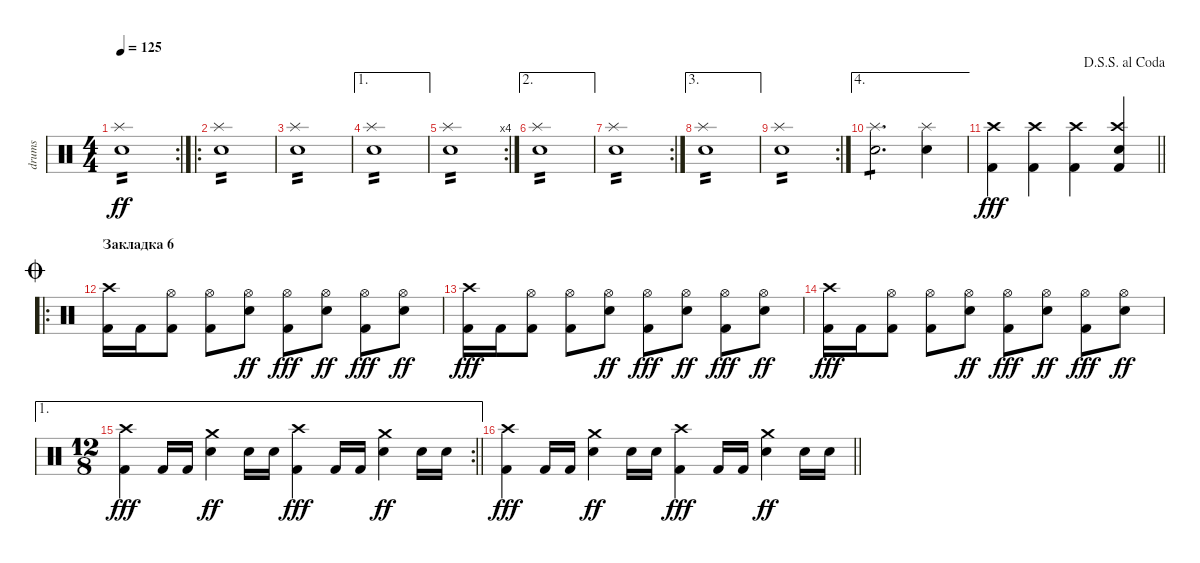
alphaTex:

\track ("drums" "drums") {instrument percussion}
\staff {score}
\articulation defaults
\rc 2
\ts (4 4)
\tempo 125
\clef neutral
\ks c
("Splash (hit)" "Electric Snare (hit)").1{tp 2 dy ff} |
\ro
("Splash (hit)" "Electric Snare (hit)").1{tp 2} |
("Splash (hit)" "Electric Snare (hit)").1{tp 2} |
\ae 1
("Splash (hit)" "Electric Snare (hit)").1{tp 2} |
\rc 4
("Splash (hit)" "Electric Snare (hit)").1{tp 2} |
\ae 2
("Splash (hit)" "Electric Snare (hit)").1{tp 2} |
\rc 2
("Splash (hit)" "Electric Snare (hit)").1{tp 2} |
\ae 3
("Splash (hit)" "Electric Snare (hit)").1{tp 2} |
\rc 2
("Splash (hit)" "Electric Snare (hit)").1{tp 2} |
\ae 4
("Splash (hit)" "Electric Snare (hit)").2{d tp 1} ("Splash (hit)" "Electric Snare (hit)").4 |
\jump dalsegnosegnoalcoda
\barLineRight lightlight
("Crash high (hit)" "Kick (hit) 2").4{dy fff} ("Crash high (hit)" "Kick (hit) 2").4 ("Crash high (hit)" "Kick (hit) 2").4 ("Crash high (hit)" "Electric Snare (hit)" "Kick (hit) 2").4 |
\ro
\section ("" "Закладка 6")
\jump coda
("Crash high (hit)" "Kick (hit) 2").16 "Kick (hit) 2".16 ("Hi-Hat (open)" "Kick (hit) 2").8 ("Hi-Hat (open)" "Kick (hit) 2").8 ("Hi-Hat (open)" "Electric Snare (hit)").8{dy ff} ("Hi-Hat (open)" "Kick (hit) 2").8{dy fff} ("Hi-Hat (open)" "Electric Snare (hit)").8{dy ff} ("Hi-Hat (open)" "Kick (hit) 2").8{dy fff} ("Hi-Hat (open)" "Electric Snare (hit)").8{dy ff} |
("Crash high (hit)" "Kick (hit) 2").16{dy fff} "Kick (hit) 2".16 ("Hi-Hat (open)" "Kick (hit) 2").8 ("Hi-Hat (open)" "Kick (hit) 2").8 ("Hi-Hat (open)" "Electric Snare (hit)").8{dy ff} ("Hi-Hat (open)" "Kick (hit) 2").8{dy fff} ("Hi-Hat (open)" "Electric Snare (hit)").8{dy ff} ("Hi-Hat (open)" "Kick (hit) 2").8{dy fff} ("Hi-Hat (open)" "Electric Snare (hit)").8{dy ff} |
("Crash high (hit)" "Kick (hit) 2").16{dy fff} "Kick (hit) 2".16 ("Hi-Hat (open)" "Kick (hit) 2").8 ("Hi-Hat (open)" "Kick (hit) 2").8 ("Hi-Hat (open)" "Electric Snare (hit)").8{dy ff} ("Hi-Hat (open)" "Kick (hit) 2").8{dy fff} ("Hi-Hat (open)" "Electric Snare (hit)").8{dy ff} ("Hi-Hat (open)" "Kick (hit) 2").8{dy fff} ("Hi-Hat (open)" "Electric Snare (hit)").8{dy ff} |
\ae 1
\rc 2
\ts (12 8)
\barLineRight lightlight
("Crash high (hit)" "Kick (hit) 2").4{dy fff} "Kick (hit) 2".16 "Kick (hit) 2".16 ("Crash medium (hit)" "Electric Snare (hit)").4{dy ff} "Electric Snare (hit)".16 "Electric Snare (hit)".16 ("Crash high (hit)" "Kick (hit) 2").4{dy fff} "Kick (hit) 2".16 "Kick (hit) 2".16 ("Crash medium (hit)" "Electric Snare (hit)").4{dy ff} "Electric Snare (hit)".16 "Electric Snare (hit)".16 |
\barLineRight lightlight
("Crash high (hit)" "Kick (hit) 2").4{dy fff} "Kick (hit) 2".16 "Kick (hit) 2".16 ("Crash medium (hit)" "Electric Snare (hit)").4{dy ff} "Electric Snare (hit)".16 "Electric Snare (hit)".16 ("Crash high (hit)" "Kick (hit) 2").4{dy fff} "Kick (hit) 2".16 "Kick (hit) 2".16 ("Crash medium (hit)" "Electric Snare (hit)").4{dy ff} "Electric Snare (hit)".16 "Electric Snare (hit)".16
